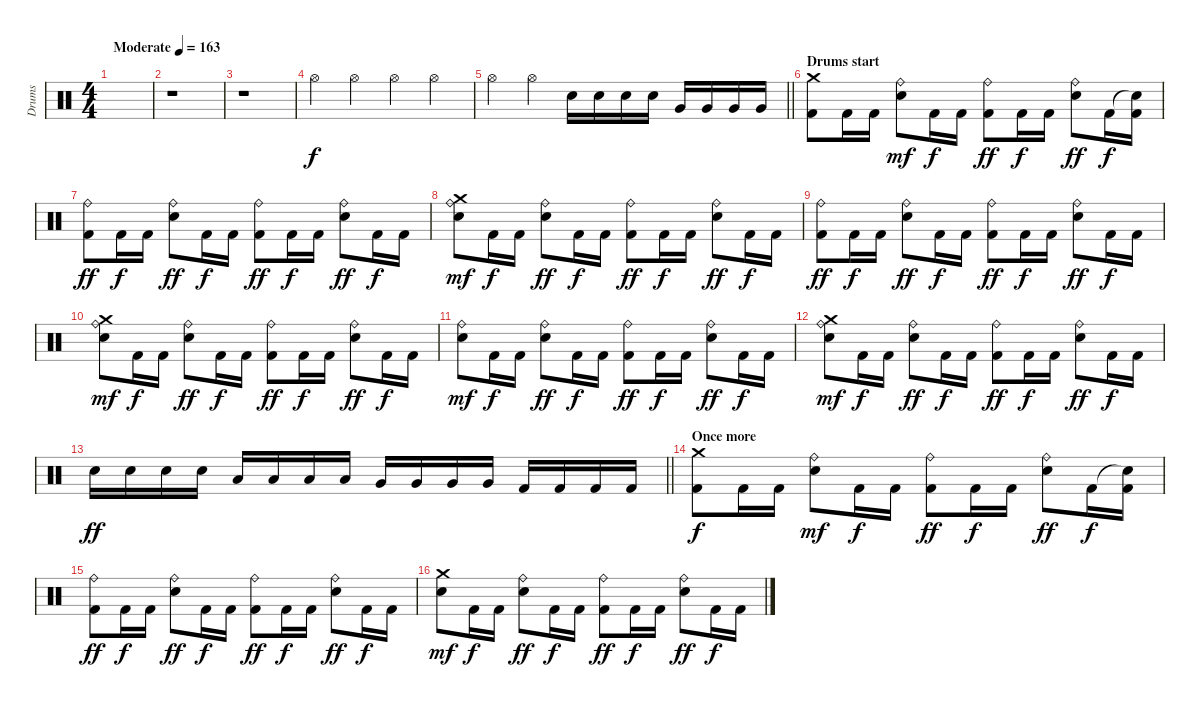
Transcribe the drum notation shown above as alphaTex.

\track ("Drums" "Drums") {instrument percussion}
\staff {score}
\articulation defaults
\ts (4 4)
\tempo (163 "Moderate")
\clef neutral
\ks c
|
r.1 |
r.1 |
"Hi-Hat (open)".4 "Hi-Hat (open)".4 "Hi-Hat (open)".4 "Hi-Hat (open)".4 |
\barLineRight lightlight "Hi-Hat (open)".4 "Hi-Hat (open)".4 "Snare (hit) 2".16 "Snare (hit) 2".16 "Snare (hit) 2".16 "Snare (hit) 2".16 "Very Low Tom (hit)".16 "Very Low Tom (hit)".16 "Very Low Tom (hit)".16 "Very Low Tom (hit)".16
|
\section ("" "Drums start")
("Crash medium (hit)" "Kick (hit) 2").8 "Kick (hit) 2".16 "Kick (hit) 2".16 ("Ride (bell)" "Electric Snare (hit)").8{dy mf} "Kick (hit) 2".16{dy f} "Kick (hit) 2".16 ("Ride (bell)" "Kick (hit) 2").8{dy ff} "Kick (hit) 2".16{dy f} "Kick (hit) 2".16 ("Ride (bell)" "Electric Snare (hit)").8{dy ff} "Kick (hit) 2".16{dy f} ("Snare (hit)"{t} "Kick (hit) 2").16 |
("Ride (bell)" "Kick (hit) 2").8{dy ff} "Kick (hit) 2".16{dy f} "Kick (hit) 2".16 ("Ride (bell)" "Electric Snare (hit)").8{dy ff} "Kick (hit) 2".16{dy f} "Kick (hit) 2".16 ("Ride (bell)" "Kick (hit) 2").8{dy ff} "Kick (hit) 2".16{dy f} "Kick (hit) 2".16 ("Ride (bell)" "Electric Snare (hit)").8{dy ff} "Kick (hit) 2".16{dy f} "Kick (hit) 2".16 |
("Crash medium (hit)" "Ride (bell)" "Electric Snare (hit)").8{dy mf} "Kick (hit) 2".16{dy f} "Kick (hit) 2".16 ("Ride (bell)" "Electric Snare (hit)").8{dy ff} "Kick (hit) 2".16{dy f} "Kick (hit) 2".16 ("Ride (bell)" "Kick (hit) 2").8{dy ff} "Kick (hit) 2".16{dy f} "Kick (hit) 2".16 ("Ride (bell)" "Electric Snare (hit)").8{dy ff} "Kick (hit) 2".16{dy f} "Kick (hit) 2".16 |
("Ride (bell)" "Kick (hit) 2").8{dy ff} "Kick (hit) 2".16{dy f} "Kick (hit) 2".16 ("Ride (bell)" "Electric Snare (hit)").8{dy ff} "Kick (hit) 2".16{dy f} "Kick (hit) 2".16 ("Ride (bell)" "Kick (hit) 2").8{dy ff} "Kick (hit) 2".16{dy f} "Kick (hit) 2".16 ("Ride (bell)" "Electric Snare (hit)").8{dy ff} "Kick (hit) 2".16{dy f} "Kick (hit) 2".16 |
("Crash medium (hit)" "Ride (bell)" "Electric Snare (hit)").8{dy mf} "Kick (hit) 2".16{dy f} "Kick (hit) 2".16 ("Ride (bell)" "Electric Snare (hit)").8{dy ff} "Kick (hit) 2".16{dy f} "Kick (hit) 2".16 ("Ride (bell)" "Kick (hit) 2").8{dy ff} "Kick (hit) 2".16{dy f} "Kick (hit) 2".16 ("Ride (bell)" "Electric Snare (hit)").8{dy ff} "Kick (hit) 2".16{dy f} "Kick (hit) 2".16 |
("Ride (bell)" "Electric Snare (hit)").8{dy mf} "Kick (hit) 2".16{dy f} "Kick (hit) 2".16 ("Ride (bell)" "Electric Snare (hit)").8{dy ff} "Kick (hit) 2".16{dy f} "Kick (hit) 2".16 ("Ride (bell)" "Kick (hit) 2").8{dy ff} "Kick (hit) 2".16{dy f} "Kick (hit) 2".16 ("Ride (bell)" "Electric Snare (hit)").8{dy ff} "Kick (hit) 2".16{dy f} "Kick (hit) 2".16 |
("Crash medium (hit)" "Ride (bell)" "Electric Snare (hit)").8{dy mf} "Kick (hit) 2".16{dy f} "Kick (hit) 2".16 ("Ride (bell)" "Electric Snare (hit)").8{dy ff} "Kick (hit) 2".16{dy f} "Kick (hit) 2".16 ("Ride (bell)" "Kick (hit) 2").8{dy ff} "Kick (hit) 2".16{dy f} "Kick (hit) 2".16 ("Ride (bell)" "Electric Snare (hit)").8{dy ff} "Kick (hit) 2".16{dy f} "Kick (hit) 2".16 |
\barLineRight lightlight "Electric Snare (hit)".16{dy ff} "Electric Snare (hit)".16 "Electric Snare (hit)".16 "Electric Snare (hit)".16 "Low Tom (hit)".16 "Low Tom (hit)".16 "Low Tom (hit)".16 "Low Tom (hit)".16 "Very Low Tom (hit)".16 "Very Low Tom (hit)".16 "Very Low Tom (hit)".16 "Very Low Tom (hit)".16 "Kick (hit) 2".16 "Kick (hit) 2".16 "Kick (hit) 2".16 "Kick (hit) 2".16
|
\section ("" "Once more")
("Crash medium (hit)" "Kick (hit) 2").8{dy f} "Kick (hit) 2".16 "Kick (hit) 2".16 ("Ride (bell)" "Electric Snare (hit)").8{dy mf} "Kick (hit) 2".16{dy f} "Kick (hit) 2".16 ("Ride (bell)" "Kick (hit) 2").8{dy ff} "Kick (hit) 2".16{dy f} "Kick (hit) 2".16 ("Ride (bell)" "Electric Snare (hit)").8{dy ff} "Kick (hit) 2".16{dy f} ("Snare (hit)"{t} "Kick (hit) 2").16 |
("Ride (bell)" "Kick (hit) 2").8{dy ff} "Kick (hit) 2".16{dy f} "Kick (hit) 2".16 ("Ride (bell)" "Electric Snare (hit)").8{dy ff} "Kick (hit) 2".16{dy f} "Kick (hit) 2".16 ("Ride (bell)" "Kick (hit) 2").8{dy ff} "Kick (hit) 2".16{dy f} "Kick (hit) 2".16 ("Ride (bell)" "Electric Snare (hit)").8{dy ff} "Kick (hit) 2".16{dy f} "Kick (hit) 2".16 |
("Crash medium (hit)" "Electric Snare (hit)").8{dy mf} "Kick (hit) 2".16{dy f} "Kick (hit) 2".16 ("Ride (bell)" "Electric Snare (hit)").8{dy ff} "Kick (hit) 2".16{dy f} "Kick (hit) 2".16 ("Ride (bell)" "Kick (hit) 2").8{dy ff} "Kick (hit) 2".16{dy f} "Kick (hit) 2".16 ("Ride (bell)" "Electric Snare (hit)").8{dy ff} "Kick (hit) 2".16{dy f} "Kick (hit) 2".16
